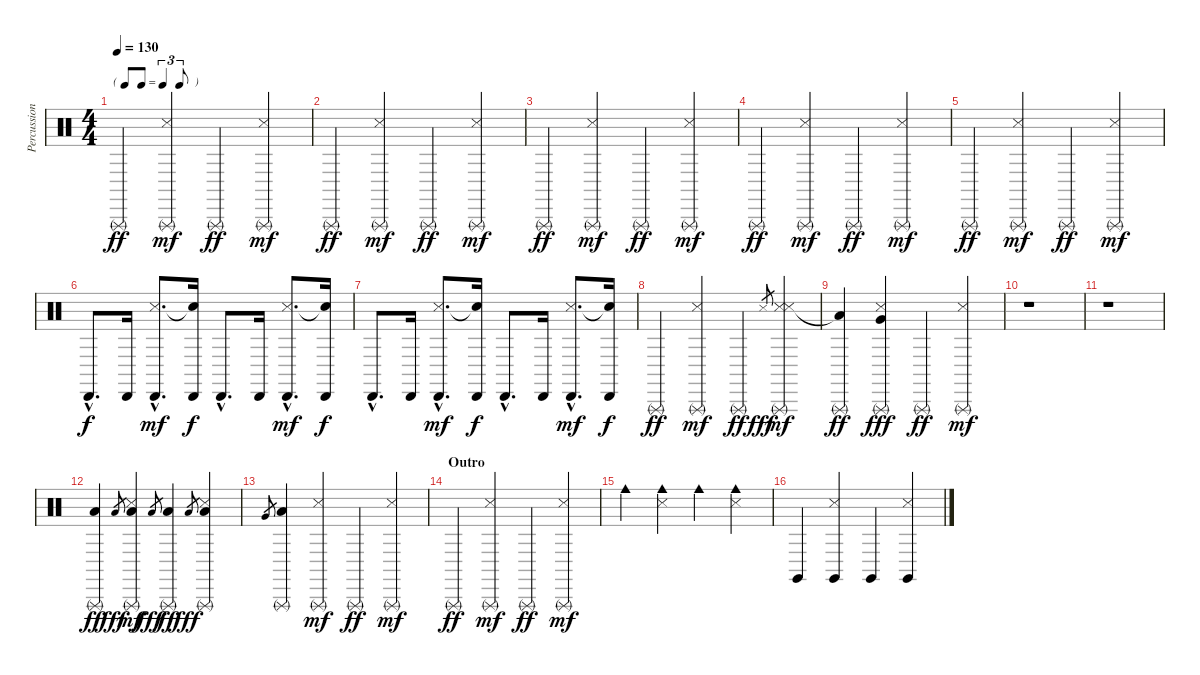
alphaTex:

\track ("Percussion" "Percussion") {instrument percussion}
\staff {score}
\articulation defaults
\ts (4 4)
\tf triplet8th
\tempo 130
\clef neutral
\ks c "Triangle (rnute)".4{dy ff}
("Triangle (rnute)" "Snare (side stick) 3").4{dy mf} "Triangle (rnute)".4{dy ff} ("Triangle (rnute)" "Snare (side stick) 3").4{dy mf} |
"Triangle (rnute)".4{dy ff} ("Triangle (rnute)" "Snare (side stick) 3").4{dy mf} "Triangle (rnute)".4{dy ff} ("Triangle (rnute)" "Snare (side stick) 3").4{dy mf} |
"Triangle (rnute)".4{dy ff} ("Triangle (rnute)" "Snare (side stick) 3").4{dy mf} "Triangle (rnute)".4{dy ff} ("Triangle (rnute)" "Snare (side stick) 3").4{dy mf} |
"Triangle (rnute)".4{dy ff} ("Triangle (rnute)" "Snare (side stick) 3").4{dy mf} "Triangle (rnute)".4{dy ff} ("Triangle (rnute)" "Snare (side stick) 3").4{dy mf} |
"Triangle (rnute)".4{dy ff} ("Triangle (rnute)" "Snare (side stick) 3").4{dy mf} "Triangle (rnute)".4{dy ff} ("Triangle (rnute)" "Snare (side stick) 3").4{dy mf} |
"Cabasa (hit)"{hac}.8{d dy f} "Cabasa (hit)".16 ("Cabasa (hit)"{hac} "Snare (side stick) 3"{hac}).8{d dy mf} ("Cabasa (hit)" "Snare (hit)"{t}).16{dy f} "Cabasa (hit)"{hac}.8{d} "Cabasa (hit)".16 ("Cabasa (hit)"{hac} "Snare (side stick) 3"{hac}).8{d dy mf} ("Cabasa (hit)" "Snare (hit)"{t}).16{dy f} |
"Cabasa (hit)"{hac}.8{d} "Cabasa (hit)".16 ("Cabasa (hit)"{hac} "Snare (side stick) 3"{hac}).8{d dy mf} ("Cabasa (hit)" "Snare (hit)"{t}).16{dy f} "Cabasa (hit)"{hac}.8{d} "Cabasa (hit)".16 ("Cabasa (hit)"{hac} "Snare (side stick) 3"{hac}).8{d dy mf} ("Cabasa (hit)" "Snare (hit)"{t}).16{dy f} |
"Triangle (rnute)".4{dy ff} ("Triangle (rnute)" "Snare (side stick) 3").4{dy mf} "Triangle (rnute)".4{dy ff} "Snare (side stick) 3".8{gr dy fff} ("Triangle (rnute)" "Snare (side stick) 3" "Snare (side stick) 3").4{dy mf} |
("Triangle (rnute)" "Low Floor Tom (hit)"{t}).4{dy ff} ("Triangle (rnute)" "Snare (side stick) 3" "Very Low Tom (hit)").4{dy fff} "Triangle (rnute)".4{dy ff} ("Triangle (rnute)" "Snare (side stick) 3").4{dy mf} |
r.1 |
r.1 |
("Triangle (rnute)" "Low Floor Tom (hit)").4{dy ff} "Low Floor Tom (hit)".8{gr dy fff} ("Triangle (rnute)" "Snare (side stick) 3" "Low Floor Tom (hit)").4{dy mf} "Low Floor Tom (hit)".8{gr dy fff} ("Triangle (rnute)" "Low Floor Tom (hit)").4{dy ff} "Low Floor Tom (hit)".8{gr dy fff} ("Triangle (rnute)" "Snare (side stick) 3" "Low Floor Tom (hit)").4 |
"Very Low Tom (hit)".8{gr} ("Triangle (rnute)" "Low Floor Tom (hit)").4 ("Triangle (rnute)" "Snare (side stick) 3").4{dy mf} "Triangle (rnute)".4{dy ff} ("Triangle (rnute)" "Snare (side stick) 3").4{dy mf} |
\section ("" "Outro")
"Triangle (rnute)".4{dy ff} ("Triangle (rnute)" "Snare (side stick) 3").4{dy mf} "Triangle (rnute)".4{dy ff} ("Triangle (rnute)" "Snare (side stick) 3").4{dy mf} |
"Cowbell medium (hit)".4 ("Cowbell medium (hit)" "Snare (side stick) 3").4 "Cowbell medium (hit)".4 ("Cowbell medium (hit)" "Snare (side stick) 3").4 |
"Claves (hit)".4 ("Claves (hit)" "Snare (side stick) 3").4 "Claves (hit)".4 ("Claves (hit)" "Snare (side stick) 3").4
